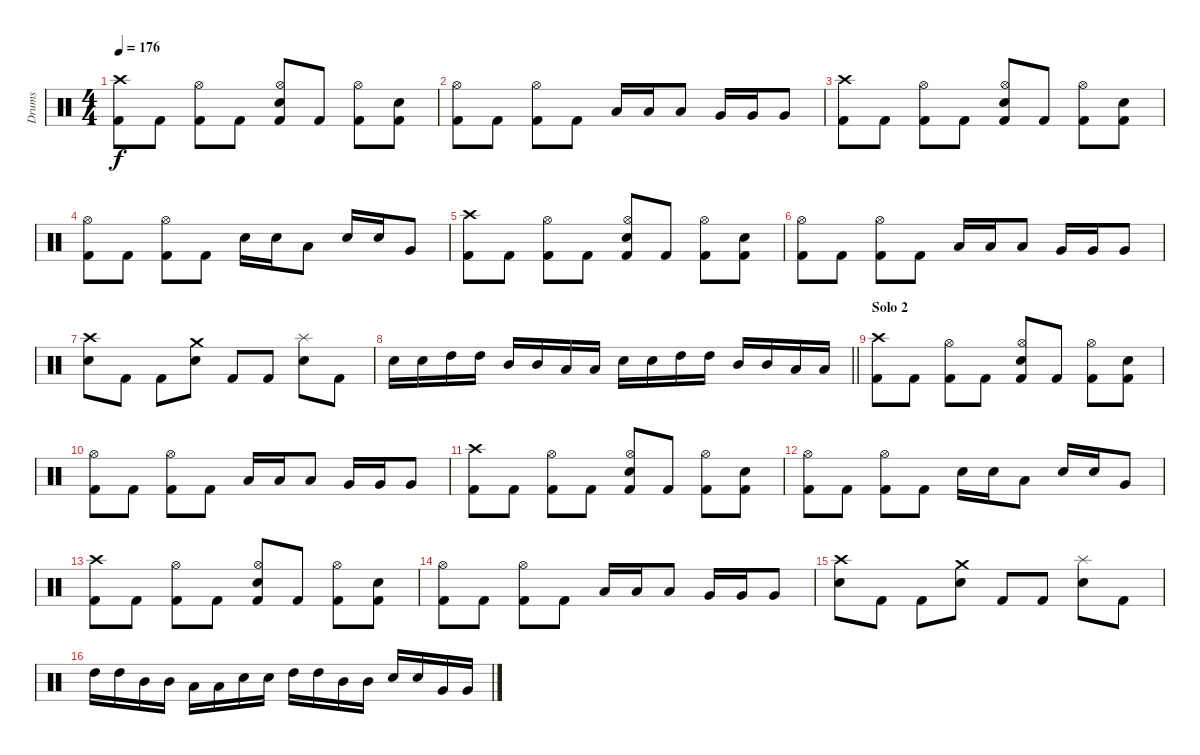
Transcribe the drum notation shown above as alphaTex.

\track ("Drums" "Drums") {instrument percussion}
\staff {score}
\articulation defaults
\ts (4 4)
\tempo 176
\clef neutral
\ks c
("Crash high (hit)" "Kick (hit) 2").8{dy f} "Kick (hit) 2".8 ("Hi-Hat (open)" "Kick (hit) 2").8 "Kick (hit) 2".8 ("Hi-Hat (open)" "Snare (hit) 2" "Kick (hit) 2").8 "Kick (hit) 2".8 ("Hi-Hat (open)" "Kick (hit) 2").8 ("Snare (hit) 2" "Kick (hit) 2").8 |
("Hi-Hat (open)" "Kick (hit) 2").8 "Kick (hit) 2".8 ("Hi-Hat (open)" "Kick (hit) 2").8 "Kick (hit) 2".8 "Low Tom (hit)".16 "Low Tom (hit)".16 "Low Tom (hit)".8 "Very Low Tom (hit)".16 "Very Low Tom (hit)".16 "Very Low Tom (hit)".8 |
("Crash high (hit)" "Kick (hit) 2").8 "Kick (hit) 2".8 ("Hi-Hat (open)" "Kick (hit) 2").8 "Kick (hit) 2".8 ("Hi-Hat (open)" "Snare (hit) 2" "Kick (hit) 2").8 "Kick (hit) 2".8 ("Hi-Hat (open)" "Kick (hit) 2").8 ("Snare (hit) 2" "Kick (hit) 2").8 |
("Hi-Hat (open)" "Kick (hit) 2").8 "Kick (hit) 2".8 ("Hi-Hat (open)" "Kick (hit) 2").8 "Kick (hit) 2".8 "Snare (hit) 2".16 "Snare (hit) 2".16 "Low Tom (hit)".8 "Snare (hit) 2".16 "Snare (hit) 2".16 "Very Low Tom (hit)".8 |
("Crash high (hit)" "Kick (hit) 2").8 "Kick (hit) 2".8 ("Hi-Hat (open)" "Kick (hit) 2").8 "Kick (hit) 2".8 ("Hi-Hat (open)" "Snare (hit) 2" "Kick (hit) 2").8 "Kick (hit) 2".8 ("Hi-Hat (open)" "Kick (hit) 2").8 ("Snare (hit) 2" "Kick (hit) 2").8 |
("Hi-Hat (open)" "Kick (hit) 2").8 "Kick (hit) 2".8 ("Hi-Hat (open)" "Kick (hit) 2").8 "Kick (hit) 2".8 "Low Tom (hit)".16 "Low Tom (hit)".16 "Low Tom (hit)".8 "Very Low Tom (hit)".16 "Very Low Tom (hit)".16 "Very Low Tom (hit)".8 |
("Crash high (hit)" "Snare (hit) 2").8 "Kick (hit) 2".8 "Kick (hit) 2".8 ("Crash medium (hit)" "Snare (hit) 2").8 "Kick (hit) 2".8 "Kick (hit) 2".8 ("Splash (hit)" "Snare (hit) 2").8 "Kick (hit) 2".8 |
\barLineRight lightlight "Snare (hit) 2".16 "Snare (hit) 2".16 "High Tom (hit)".16 "High Tom (hit)".16 "Mid Tom (hit)".16 "Mid Tom (hit)".16 "Low Tom (hit)".16 "Low Tom (hit)".16 "Snare (hit) 2".16 "Snare (hit) 2".16 "High Tom (hit)".16 "High Tom (hit)".16 "Mid Tom (hit)".16 "Mid Tom (hit)".16 "Low Tom (hit)".16 "Low Tom (hit)".16
|
\section ("" "Solo 2")
("Crash high (hit)" "Kick (hit) 2").8 "Kick (hit) 2".8 ("Hi-Hat (open)" "Kick (hit) 2").8 "Kick (hit) 2".8 ("Hi-Hat (open)" "Snare (hit) 2" "Kick (hit) 2").8 "Kick (hit) 2".8 ("Hi-Hat (open)" "Kick (hit) 2").8 ("Snare (hit) 2" "Kick (hit) 2").8 |
("Hi-Hat (open)" "Kick (hit) 2").8 "Kick (hit) 2".8 ("Hi-Hat (open)" "Kick (hit) 2").8 "Kick (hit) 2".8 "Low Tom (hit)".16 "Low Tom (hit)".16 "Low Tom (hit)".8 "Very Low Tom (hit)".16 "Very Low Tom (hit)".16 "Very Low Tom (hit)".8 |
("Crash high (hit)" "Kick (hit) 2").8 "Kick (hit) 2".8 ("Hi-Hat (open)" "Kick (hit) 2").8 "Kick (hit) 2".8 ("Hi-Hat (open)" "Snare (hit) 2" "Kick (hit) 2").8 "Kick (hit) 2".8 ("Hi-Hat (open)" "Kick (hit) 2").8 ("Snare (hit) 2" "Kick (hit) 2").8 |
("Hi-Hat (open)" "Kick (hit) 2").8 "Kick (hit) 2".8 ("Hi-Hat (open)" "Kick (hit) 2").8 "Kick (hit) 2".8 "Snare (hit) 2".16 "Snare (hit) 2".16 "Low Tom (hit)".8 "Snare (hit) 2".16 "Snare (hit) 2".16 "Very Low Tom (hit)".8 |
("Crash high (hit)" "Kick (hit) 2").8 "Kick (hit) 2".8 ("Hi-Hat (open)" "Kick (hit) 2").8 "Kick (hit) 2".8 ("Hi-Hat (open)" "Snare (hit) 2" "Kick (hit) 2").8 "Kick (hit) 2".8 ("Hi-Hat (open)" "Kick (hit) 2").8 ("Snare (hit) 2" "Kick (hit) 2").8 |
("Hi-Hat (open)" "Kick (hit) 2").8 "Kick (hit) 2".8 ("Hi-Hat (open)" "Kick (hit) 2").8 "Kick (hit) 2".8 "Low Tom (hit)".16 "Low Tom (hit)".16 "Low Tom (hit)".8 "Very Low Tom (hit)".16 "Very Low Tom (hit)".16 "Very Low Tom (hit)".8 |
("Crash high (hit)" "Snare (hit) 2").8 "Kick (hit) 2".8 "Kick (hit) 2".8 ("Crash medium (hit)" "Snare (hit) 2").8 "Kick (hit) 2".8 "Kick (hit) 2".8 ("Splash (hit)" "Snare (hit) 2").8 "Kick (hit) 2".8 |
"High Tom (hit)".16 "High Tom (hit)".16 "Mid Tom (hit)".16 "Mid Tom (hit)".16 "Low Tom (hit)".16 "Low Tom (hit)".16 "Snare (hit) 2".16 "Snare (hit) 2".16 "High Tom (hit)".16 "High Tom (hit)".16 "Mid Tom (hit)".16 "Mid Tom (hit)".16 "Snare (hit) 2".16 "Snare (hit) 2".16 "Very Low Tom (hit)".16 "Very Low Tom (hit)".16
